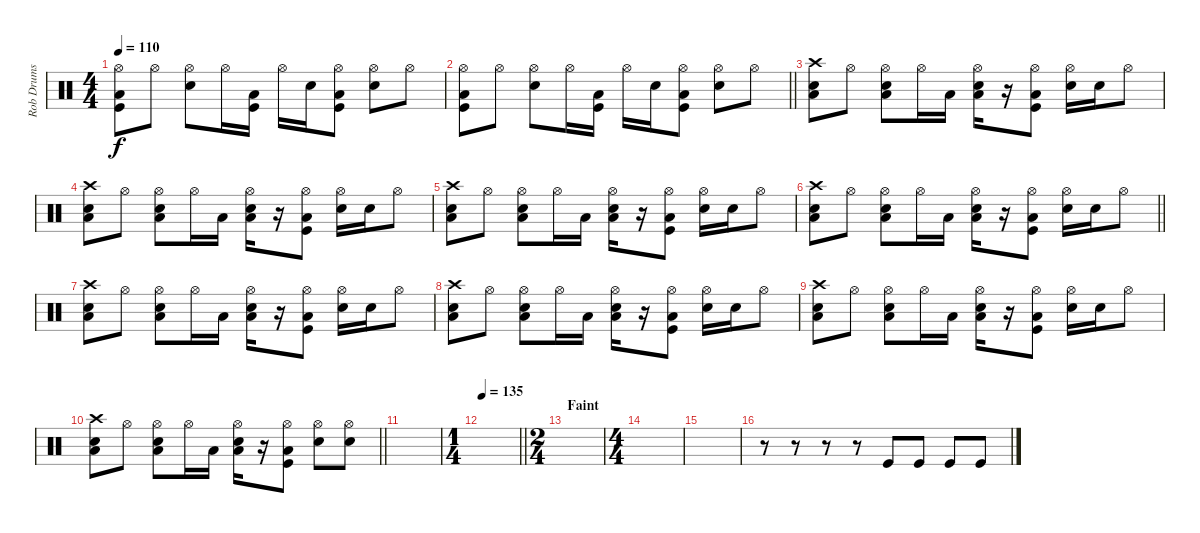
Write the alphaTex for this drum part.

\track ("Rob Drums" "Rob Drums") {instrument percussion}
\staff {score}
\articulation defaults
\ts (4 4)
\tempo 110
\clef neutral
\ks c
("Hi-Hat (open)" "Kick (hit)" "Low Tom (hit)").8{dy f} "Hi-Hat (open)".8 ("Hi-Hat (open)" "Snare (hit) 2").8 "Hi-Hat (open)".16 ("Kick (hit)" "Low Tom (hit)").16 "Hi-Hat (open)".16 "Snare (hit) 2".16 ("Hi-Hat (open)" "Kick (hit)" "Low Tom (hit)").8 ("Hi-Hat (open)" "Snare (hit) 2").8 "Hi-Hat (open)".8 |
\barLineRight lightlight
("Hi-Hat (open)" "Kick (hit)" "Low Tom (hit)").8 "Hi-Hat (open)".8 ("Hi-Hat (open)" "Snare (hit) 2").8 "Hi-Hat (open)".16 ("Kick (hit)" "Low Tom (hit)").16 "Hi-Hat (open)".16 "Snare (hit) 2".16 ("Hi-Hat (open)" "Kick (hit)" "Low Tom (hit)").8 ("Hi-Hat (open)" "Snare (hit) 2").8 "Hi-Hat (open)".8 |
("Crash high (hit)" "Snare (hit) 2" "Low Tom (hit)").8 "Hi-Hat (open)".8 ("Hi-Hat (open)" "Snare (hit) 2" "Low Tom (hit)").8 "Hi-Hat (open)".16 "Low Tom (hit)".16 ("Hi-Hat (open)" "Snare (hit) 2" "Low Tom (hit)").16 r.16 ("Hi-Hat (open)" "Kick (hit)" "Low Tom (hit)").8 ("Hi-Hat (open)" "Snare (hit) 2").16 "Snare (hit) 2".16 "Hi-Hat (open)".8 |
("Crash high (hit)" "Snare (hit) 2" "Low Tom (hit)").8 "Hi-Hat (open)".8 ("Hi-Hat (open)" "Snare (hit) 2" "Low Tom (hit)").8 "Hi-Hat (open)".16 "Low Tom (hit)".16 ("Hi-Hat (open)" "Snare (hit) 2" "Low Tom (hit)").16 r.16 ("Hi-Hat (open)" "Kick (hit)" "Low Tom (hit)").8 ("Hi-Hat (open)" "Snare (hit) 2").16 "Snare (hit) 2".16 "Hi-Hat (open)".8 |
("Crash high (hit)" "Snare (hit) 2" "Low Tom (hit)").8 "Hi-Hat (open)".8 ("Hi-Hat (open)" "Snare (hit) 2" "Low Tom (hit)").8 "Hi-Hat (open)".16 "Low Tom (hit)".16 ("Hi-Hat (open)" "Snare (hit) 2" "Low Tom (hit)").16 r.16 ("Hi-Hat (open)" "Kick (hit)" "Low Tom (hit)").8 ("Hi-Hat (open)" "Snare (hit) 2").16 "Snare (hit) 2".16 "Hi-Hat (open)".8 |
\barLineRight lightlight
("Crash high (hit)" "Snare (hit) 2" "Low Tom (hit)").8 "Hi-Hat (open)".8 ("Hi-Hat (open)" "Snare (hit) 2" "Low Tom (hit)").8 "Hi-Hat (open)".16 "Low Tom (hit)".16 ("Hi-Hat (open)" "Snare (hit) 2" "Low Tom (hit)").16 r.16 ("Hi-Hat (open)" "Kick (hit)" "Low Tom (hit)").8 ("Hi-Hat (open)" "Snare (hit) 2").16 "Snare (hit) 2".16 "Hi-Hat (open)".8 |
("Crash high (hit)" "Snare (hit) 2" "Low Tom (hit)").8 "Hi-Hat (open)".8 ("Hi-Hat (open)" "Snare (hit) 2" "Low Tom (hit)").8 "Hi-Hat (open)".16 "Low Tom (hit)".16 ("Hi-Hat (open)" "Snare (hit) 2" "Low Tom (hit)").16 r.16 ("Hi-Hat (open)" "Kick (hit)" "Low Tom (hit)").8 ("Hi-Hat (open)" "Snare (hit) 2").16 "Snare (hit) 2".16 "Hi-Hat (open)".8 |
("Crash high (hit)" "Snare (hit) 2" "Low Tom (hit)").8 "Hi-Hat (open)".8 ("Hi-Hat (open)" "Snare (hit) 2" "Low Tom (hit)").8 "Hi-Hat (open)".16 "Low Tom (hit)".16 ("Hi-Hat (open)" "Snare (hit) 2" "Low Tom (hit)").16 r.16 ("Hi-Hat (open)" "Kick (hit)" "Low Tom (hit)").8 ("Hi-Hat (open)" "Snare (hit) 2").16 "Snare (hit) 2".16 "Hi-Hat (open)".8 |
("Crash high (hit)" "Snare (hit) 2" "Low Tom (hit)").8 "Hi-Hat (open)".8 ("Hi-Hat (open)" "Snare (hit) 2" "Low Tom (hit)").8 "Hi-Hat (open)".16 "Low Tom (hit)".16 ("Hi-Hat (open)" "Snare (hit) 2" "Low Tom (hit)").16 r.16 ("Hi-Hat (open)" "Kick (hit)" "Low Tom (hit)").8 ("Hi-Hat (open)" "Snare (hit) 2").16 "Snare (hit) 2".16 "Hi-Hat (open)".8 |
\barLineRight lightlight
("Crash high (hit)" "Snare (hit) 2" "Low Tom (hit)").8 "Hi-Hat (open)".8 ("Hi-Hat (open)" "Snare (hit) 2" "Low Tom (hit)").8 "Hi-Hat (open)".16 "Low Tom (hit)".16 ("Hi-Hat (open)" "Snare (hit) 2" "Low Tom (hit)").16 r.16 ("Hi-Hat (open)" "Kick (hit)" "Low Tom (hit)").8 ("Hi-Hat (open)" "Snare (hit) 2").8 ("Hi-Hat (open)" "Snare (hit) 2").8 |
|
\ts (1 4)
\tempo 135
\barLineRight lightlight
|
\ts (2 4)
\section ("" "Faint")
|
\ts (4 4)
|
|
r.8 r.8 r.8 r.8 "Kick (hit)".8{volume 8} "Kick (hit)".8 "Kick (hit)".8 "Kick (hit)".8
